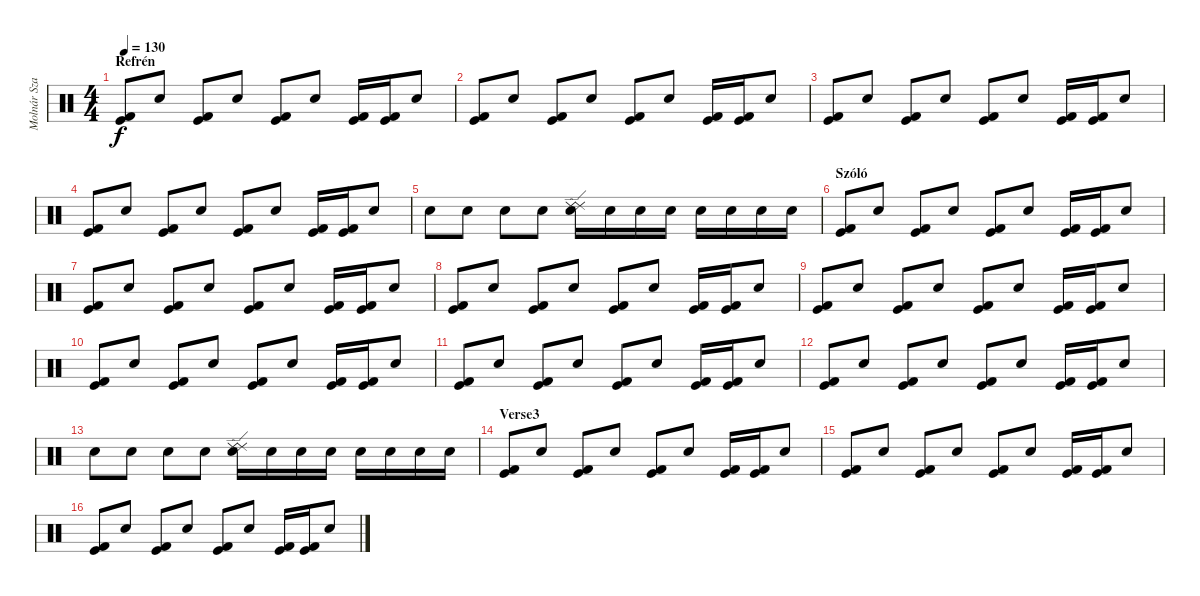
\track ("Molnár Szabolcs" "Molnár Sza") {instrument percussion}
\staff {score}
\articulation defaults
\ts (4 4)
\section ("" "Refrén")
\tempo 130
\clef neutral
\ks c
("Kick (hit)" "Kick (hit) 2").8{dy f} "Snare (hit) 2".8 ("Kick (hit)" "Kick (hit) 2").8 "Snare (hit) 2".8 ("Kick (hit)" "Kick (hit) 2").8 "Snare (hit) 2".8 ("Kick (hit)" "Kick (hit) 2").16 ("Kick (hit)" "Kick (hit) 2").16 "Snare (hit) 2".8 |
("Kick (hit)" "Kick (hit) 2").8 "Snare (hit) 2".8 ("Kick (hit)" "Kick (hit) 2").8 "Snare (hit) 2".8 ("Kick (hit)" "Kick (hit) 2").8 "Snare (hit) 2".8 ("Kick (hit)" "Kick (hit) 2").16 ("Kick (hit)" "Kick (hit) 2").16 "Snare (hit) 2".8 |
("Kick (hit)" "Kick (hit) 2").8 "Snare (hit) 2".8 ("Kick (hit)" "Kick (hit) 2").8 "Snare (hit) 2".8 ("Kick (hit)" "Kick (hit) 2").8 "Snare (hit) 2".8 ("Kick (hit)" "Kick (hit) 2").16 ("Kick (hit)" "Kick (hit) 2").16 "Snare (hit) 2".8 |
("Kick (hit)" "Kick (hit) 2").8 "Snare (hit) 2".8 ("Kick (hit)" "Kick (hit) 2").8 "Snare (hit) 2".8 ("Kick (hit)" "Kick (hit) 2").8 "Snare (hit) 2".8 ("Kick (hit)" "Kick (hit) 2").16 ("Kick (hit)" "Kick (hit) 2").16 "Snare (hit) 2".8 |
"Snare (hit) 2".8 "Snare (hit) 2".8 "Snare (hit) 2".8 "Snare (hit) 2".8 ("Snare (hit) 2" "Ride (edge) 2" "Ride (edge) 2").16 "Snare (hit) 2".16 "Snare (hit) 2".16 "Snare (hit) 2".16 "Snare (hit) 2".16 "Snare (hit) 2".16 "Snare (hit) 2".16 "Snare (hit) 2".16 |
\section ("" "Szóló")
("Kick (hit)" "Kick (hit) 2").8 "Snare (hit) 2".8 ("Kick (hit)" "Kick (hit) 2").8 "Snare (hit) 2".8 ("Kick (hit)" "Kick (hit) 2").8 "Snare (hit) 2".8 ("Kick (hit)" "Kick (hit) 2").16 ("Kick (hit)" "Kick (hit) 2").16 "Snare (hit) 2".8 |
("Kick (hit)" "Kick (hit) 2").8 "Snare (hit) 2".8 ("Kick (hit)" "Kick (hit) 2").8 "Snare (hit) 2".8 ("Kick (hit)" "Kick (hit) 2").8 "Snare (hit) 2".8 ("Kick (hit)" "Kick (hit) 2").16 ("Kick (hit)" "Kick (hit) 2").16 "Snare (hit) 2".8 |
("Kick (hit)" "Kick (hit) 2").8 "Snare (hit) 2".8 ("Kick (hit)" "Kick (hit) 2").8 "Snare (hit) 2".8 ("Kick (hit)" "Kick (hit) 2").8 "Snare (hit) 2".8 ("Kick (hit)" "Kick (hit) 2").16 ("Kick (hit)" "Kick (hit) 2").16 "Snare (hit) 2".8 |
("Kick (hit)" "Kick (hit) 2").8 "Snare (hit) 2".8 ("Kick (hit)" "Kick (hit) 2").8 "Snare (hit) 2".8 ("Kick (hit)" "Kick (hit) 2").8 "Snare (hit) 2".8 ("Kick (hit)" "Kick (hit) 2").16 ("Kick (hit)" "Kick (hit) 2").16 "Snare (hit) 2".8 |
("Kick (hit)" "Kick (hit) 2").8 "Snare (hit) 2".8 ("Kick (hit)" "Kick (hit) 2").8 "Snare (hit) 2".8 ("Kick (hit)" "Kick (hit) 2").8 "Snare (hit) 2".8 ("Kick (hit)" "Kick (hit) 2").16 ("Kick (hit)" "Kick (hit) 2").16 "Snare (hit) 2".8 |
("Kick (hit)" "Kick (hit) 2").8 "Snare (hit) 2".8 ("Kick (hit)" "Kick (hit) 2").8 "Snare (hit) 2".8 ("Kick (hit)" "Kick (hit) 2").8 "Snare (hit) 2".8 ("Kick (hit)" "Kick (hit) 2").16 ("Kick (hit)" "Kick (hit) 2").16 "Snare (hit) 2".8 |
("Kick (hit)" "Kick (hit) 2").8 "Snare (hit) 2".8 ("Kick (hit)" "Kick (hit) 2").8 "Snare (hit) 2".8 ("Kick (hit)" "Kick (hit) 2").8 "Snare (hit) 2".8 ("Kick (hit)" "Kick (hit) 2").16 ("Kick (hit)" "Kick (hit) 2").16 "Snare (hit) 2".8 |
"Snare (hit) 2".8 "Snare (hit) 2".8 "Snare (hit) 2".8 "Snare (hit) 2".8 ("Snare (hit) 2" "Ride (edge) 2" "Ride (edge) 2").16 "Snare (hit) 2".16 "Snare (hit) 2".16 "Snare (hit) 2".16 "Snare (hit) 2".16 "Snare (hit) 2".16 "Snare (hit) 2".16 "Snare (hit) 2".16 |
\section ("" "Verse3")
("Kick (hit)" "Kick (hit) 2").8 "Snare (hit) 2".8 ("Kick (hit)" "Kick (hit) 2").8 "Snare (hit) 2".8 ("Kick (hit)" "Kick (hit) 2").8 "Snare (hit) 2".8 ("Kick (hit)" "Kick (hit) 2").16 ("Kick (hit)" "Kick (hit) 2").16 "Snare (hit) 2".8 |
("Kick (hit)" "Kick (hit) 2").8 "Snare (hit) 2".8 ("Kick (hit)" "Kick (hit) 2").8 "Snare (hit) 2".8 ("Kick (hit)" "Kick (hit) 2").8 "Snare (hit) 2".8 ("Kick (hit)" "Kick (hit) 2").16 ("Kick (hit)" "Kick (hit) 2").16 "Snare (hit) 2".8 |
("Kick (hit)" "Kick (hit) 2").8 "Snare (hit) 2".8 ("Kick (hit)" "Kick (hit) 2").8 "Snare (hit) 2".8 ("Kick (hit)" "Kick (hit) 2").8 "Snare (hit) 2".8 ("Kick (hit)" "Kick (hit) 2").16 ("Kick (hit)" "Kick (hit) 2").16 "Snare (hit) 2".8
